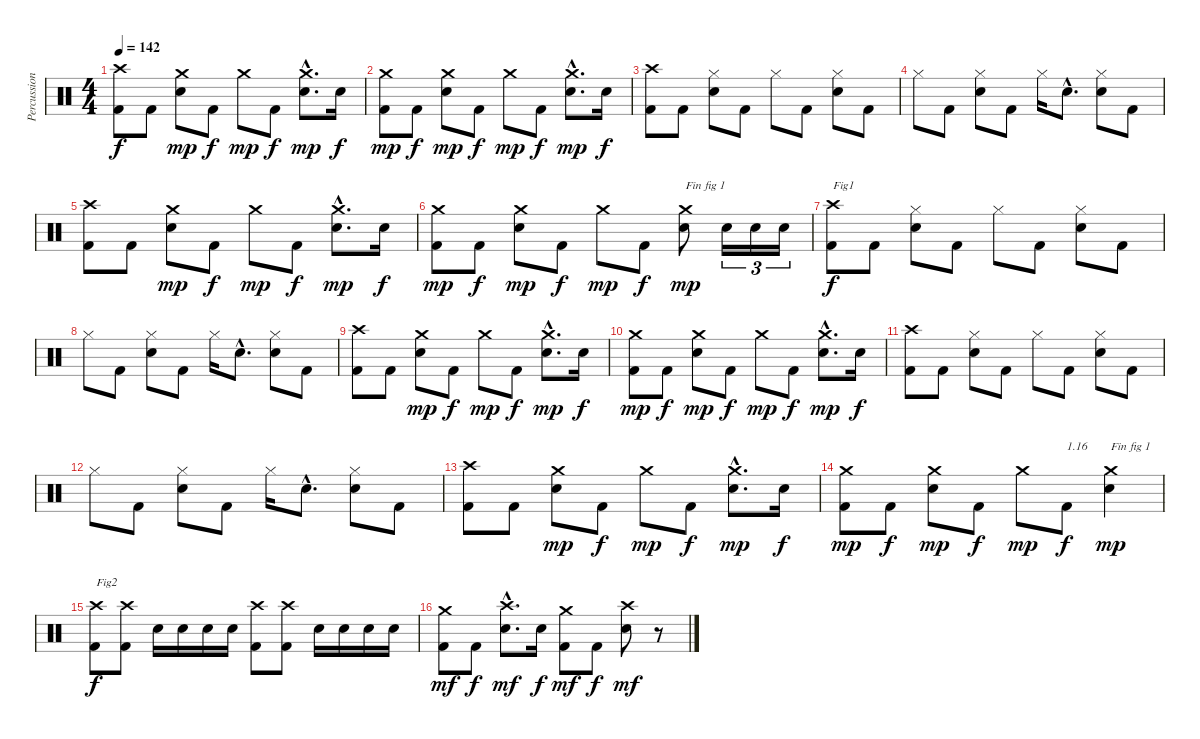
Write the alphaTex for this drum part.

\track ("Percussions" "Percussion") {instrument percussion}
\staff {score}
\articulation defaults
\ts (4 4)
\tempo 142
\clef neutral
\ks c
("Kick (hit) 2" "Crash high (hit)").8{dy f} "Kick (hit) 2".8 ("Electric Snare (hit)" "Crash medium (hit)").8{dy mp} "Kick (hit) 2".8{dy f} "Crash medium (hit)".8{dy mp} "Kick (hit) 2".8{dy f} ("Electric Snare (hit)"{hac} "Crash medium (hit)"{hac}).8{d dy mp} "Electric Snare (hit)".16{dy f} |
("Kick (hit) 2" "Crash medium (hit)").8{dy mp} "Kick (hit) 2".8{dy f} ("Electric Snare (hit)" "Crash medium (hit)").8{dy mp} "Kick (hit) 2".8{dy f} "Crash medium (hit)".8{dy mp} "Kick (hit) 2".8{dy f} ("Electric Snare (hit)"{hac} "Crash medium (hit)"{hac}).8{d dy mp} "Electric Snare (hit)".16{dy f} |
("Kick (hit) 2" "Crash high (hit)").8 "Kick (hit) 2".8 ("Electric Snare (hit)" "Hi-Hat (closed)").8 "Kick (hit) 2".8 "Hi-Hat (closed)".8 "Kick (hit) 2".8 ("Electric Snare (hit)" "Hi-Hat (closed)").8 "Kick (hit) 2".8 |
"Hi-Hat (closed)".8 "Kick (hit) 2".8 ("Electric Snare (hit)" "Hi-Hat (closed)").8 "Kick (hit) 2".8 "Hi-Hat (closed)".16 "Electric Snare (hit)"{hac}.8{d} ("Electric Snare (hit)" "Hi-Hat (closed)").8 "Kick (hit) 2".8 |
("Kick (hit) 2" "Crash high (hit)").8 "Kick (hit) 2".8 ("Electric Snare (hit)" "Crash medium (hit)").8{dy mp} "Kick (hit) 2".8{dy f} "Crash medium (hit)".8{dy mp} "Kick (hit) 2".8{dy f} ("Electric Snare (hit)"{hac} "Crash medium (hit)"{hac}).8{d dy mp} "Electric Snare (hit)".16{dy f} |
("Kick (hit) 2" "Crash medium (hit)").8{dy mp} "Kick (hit) 2".8{dy f} ("Electric Snare (hit)" "Crash medium (hit)").8{dy mp} "Kick (hit) 2".8{dy f} "Crash medium (hit)".8{dy mp} "Kick (hit) 2".8{dy f} ("Electric Snare (hit)" "Crash medium (hit)").8{txt "Fin fig 1" dy mp} "Electric Snare (hit)".16{tu (3 2)} "Electric Snare (hit)".16{tu (3 2)} "Electric Snare (hit)".16{tu (3 2)} |
("Kick (hit) 2" "Crash high (hit)").8{txt "Fig1" dy f} "Kick (hit) 2".8 ("Electric Snare (hit)" "Hi-Hat (closed)").8 "Kick (hit) 2".8 "Hi-Hat (closed)".8 "Kick (hit) 2".8 ("Electric Snare (hit)" "Hi-Hat (closed)").8 "Kick (hit) 2".8 |
"Hi-Hat (closed)".8 "Kick (hit) 2".8 ("Electric Snare (hit)" "Hi-Hat (closed)").8 "Kick (hit) 2".8 "Hi-Hat (closed)".16 "Electric Snare (hit)"{hac}.8{d} ("Electric Snare (hit)" "Hi-Hat (closed)").8 "Kick (hit) 2".8 |
("Kick (hit) 2" "Crash high (hit)").8 "Kick (hit) 2".8 ("Electric Snare (hit)" "Crash medium (hit)").8{dy mp} "Kick (hit) 2".8{dy f} "Crash medium (hit)".8{dy mp} "Kick (hit) 2".8{dy f} ("Electric Snare (hit)"{hac} "Crash medium (hit)"{hac}).8{d dy mp} "Electric Snare (hit)".16{dy f} |
("Kick (hit) 2" "Crash medium (hit)").8{dy mp} "Kick (hit) 2".8{dy f} ("Electric Snare (hit)" "Crash medium (hit)").8{dy mp} "Kick (hit) 2".8{dy f} "Crash medium (hit)".8{dy mp} "Kick (hit) 2".8{dy f} ("Electric Snare (hit)"{hac} "Crash medium (hit)"{hac}).8{d dy mp} "Electric Snare (hit)".16{dy f} |
("Kick (hit) 2" "Crash high (hit)").8 "Kick (hit) 2".8 ("Electric Snare (hit)" "Hi-Hat (closed)").8 "Kick (hit) 2".8 "Hi-Hat (closed)".8 "Kick (hit) 2".8 ("Electric Snare (hit)" "Hi-Hat (closed)").8 "Kick (hit) 2".8 |
"Hi-Hat (closed)".8 "Kick (hit) 2".8 ("Electric Snare (hit)" "Hi-Hat (closed)").8 "Kick (hit) 2".8 "Hi-Hat (closed)".16 "Electric Snare (hit)"{hac}.8{d} ("Electric Snare (hit)" "Hi-Hat (closed)").8 "Kick (hit) 2".8 |
("Kick (hit) 2" "Crash high (hit)").8 "Kick (hit) 2".8 ("Electric Snare (hit)" "Crash medium (hit)").8{dy mp} "Kick (hit) 2".8{dy f} "Crash medium (hit)".8{dy mp} "Kick (hit) 2".8{dy f} ("Electric Snare (hit)"{hac} "Crash medium (hit)"{hac}).8{d dy mp} "Electric Snare (hit)".16{dy f} |
("Kick (hit) 2" "Crash medium (hit)").8{dy mp} "Kick (hit) 2".8{dy f} ("Electric Snare (hit)" "Crash medium (hit)").8{dy mp} "Kick (hit) 2".8{dy f} "Crash medium (hit)".8{dy mp} "Kick (hit) 2".8{txt "1.16" dy f} ("Electric Snare (hit)" "Crash medium (hit)").4{txt "Fin fig 1" dy mp} |
("Kick (hit) 2" "Crash high (hit)").8{txt "Fig2" dy f} ("Kick (hit) 2" "Crash high (hit)").8 "Electric Snare (hit)".16 "Electric Snare (hit)".16 "Electric Snare (hit)".16 "Electric Snare (hit)".16 ("Kick (hit) 2" "Crash high (hit)").8 ("Kick (hit) 2" "Crash high (hit)").8 "Electric Snare (hit)".16 "Electric Snare (hit)".16 "Electric Snare (hit)".16 "Electric Snare (hit)".16 |
("Kick (hit) 2" "Crash medium (hit)").8{dy mf} "Kick (hit) 2".8{dy f} ("Electric Snare (hit)"{hac} "Crash high (hit)"{hac}).8{d dy mf} "Electric Snare (hit)".16{dy f} ("Kick (hit) 2" "Crash medium (hit)").8{dy mf} "Kick (hit) 2".8{dy f} ("Electric Snare (hit)" "Crash high (hit)").8{dy mf} r.8
